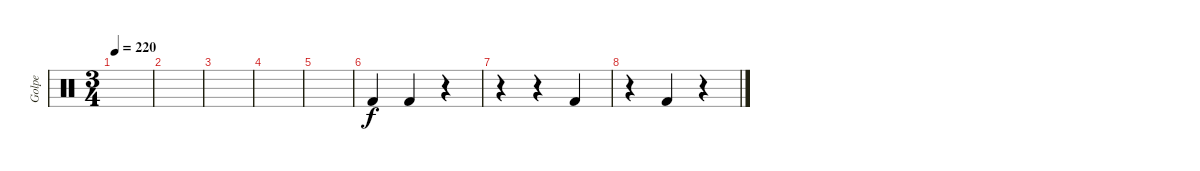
\track ("Golpe" "Golpe") {instrument percussion}
\staff {score}
\articulation defaults
\ts (3 4)
\tempo 220
\clef neutral
\ks c
|
|
|
|
|
"Kick (hit) 2".4 "Kick (hit) 2".4 r.4 |
r.4 r.4 "Kick (hit) 2".4 |
r.4 "Kick (hit) 2".4 r.4
